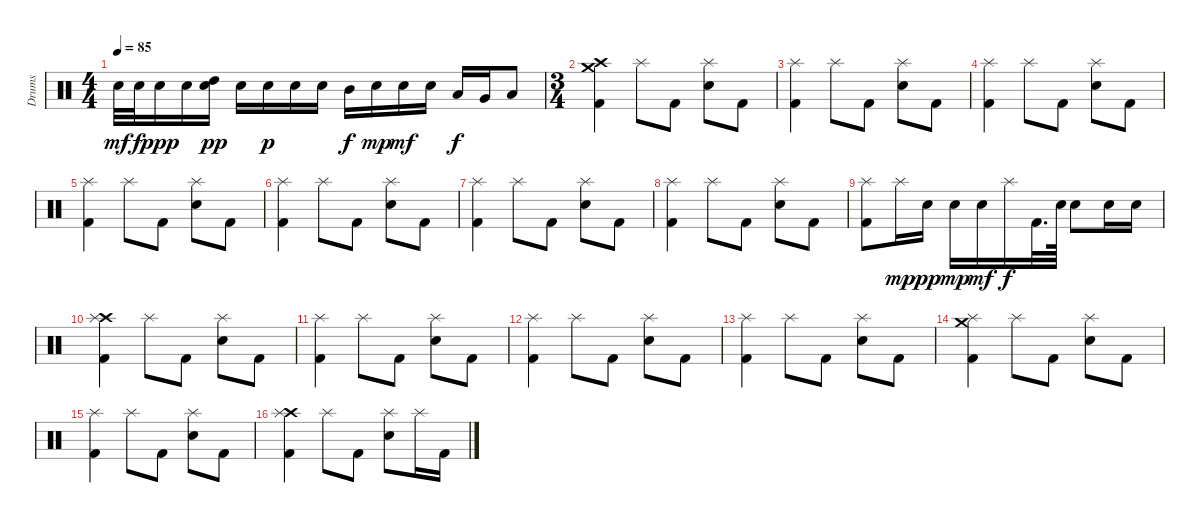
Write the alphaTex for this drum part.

\track ("Drums" "Drums") {instrument percussion}
\staff {score}
\articulation defaults
\ts (4 4)
\tempo 85
\clef neutral
\ks c "Electric Snare (hit)".32{dy mf} "Electric Snare (hit)".32{dy f} "Electric Snare (hit)".16{dy ppp} "Electric Snare (hit)".16
("Electric Snare (hit)" "High Tom (hit)").16{dy pp} "Electric Snare (hit)".16 "Electric Snare (hit)".16{dy p} "Electric Snare (hit)".16 "Electric Snare (hit)".16 "Mid Tom (hit)".16{dy f} "Electric Snare (hit)".16{dy mp} "Electric Snare (hit)".16{dy mf} "Electric Snare (hit)".16 "Low Tom (hit)".16{dy f} "Very Low Tom (hit)".16 "Low Floor Tom (hit)".8 |
\ts (3 4)
("Kick (hit) 2" "Crash high (hit)" "Crash medium (hit)").4 "Splash (hit)".8 "Kick (hit) 2".8 ("Snare (hit) 2" "Splash (hit)").8 "Kick (hit) 2".8 |
("Kick (hit) 2" "Splash (hit)").4 "Splash (hit)".8 "Kick (hit) 2".8 ("Snare (hit) 2" "Splash (hit)").8 "Kick (hit) 2".8 |
("Kick (hit) 2" "Splash (hit)").4 "Splash (hit)".8 "Kick (hit) 2".8 ("Snare (hit) 2" "Splash (hit)").8 "Kick (hit) 2".8 |
("Kick (hit) 2" "Splash (hit)").4 "Splash (hit)".8 "Kick (hit) 2".8 ("Snare (hit) 2" "Splash (hit)").8 "Kick (hit) 2".8 |
("Kick (hit) 2" "Splash (hit)").4 "Splash (hit)".8 "Kick (hit) 2".8 ("Snare (hit) 2" "Splash (hit)").8 "Kick (hit) 2".8 |
("Kick (hit) 2" "Splash (hit)").4 "Splash (hit)".8 "Kick (hit) 2".8 ("Snare (hit) 2" "Splash (hit)").8 "Kick (hit) 2".8 |
("Kick (hit) 2" "Splash (hit)").4 "Splash (hit)".8 "Kick (hit) 2".8 ("Snare (hit) 2" "Splash (hit)").8 "Kick (hit) 2".8 |
("Kick (hit) 2" "Splash (hit)").8 "Splash (hit)".16{dy mp} "Snare (hit) 2".16{dy pp} "Snare (hit) 2".16{dy mp} "Snare (hit) 2".16{dy mf} "Splash (hit)".16{dy f} "Kick (hit) 2".32{d} "Snare (hit) 2".64 "Snare (hit) 2".8 "Snare (hit) 2".16 "Snare (hit) 2".16 |
("Kick (hit) 2" "Crash high (hit)" "Splash (hit)").4 "Splash (hit)".8 "Kick (hit) 2".8 ("Snare (hit) 2" "Splash (hit)").8 "Kick (hit) 2".8 |
("Kick (hit) 2" "Splash (hit)").4 "Splash (hit)".8 "Kick (hit) 2".8 ("Snare (hit) 2" "Splash (hit)").8 "Kick (hit) 2".8 |
("Kick (hit) 2" "Splash (hit)").4 "Splash (hit)".8 "Kick (hit) 2".8 ("Snare (hit) 2" "Splash (hit)").8 "Kick (hit) 2".8 |
("Kick (hit) 2" "Splash (hit)").4 "Splash (hit)".8 "Kick (hit) 2".8 ("Snare (hit) 2" "Splash (hit)").8 "Kick (hit) 2".8 |
("Kick (hit) 2" "Splash (hit)" "Crash medium (hit)").4 "Splash (hit)".8 "Kick (hit) 2".8 ("Snare (hit) 2" "Splash (hit)").8 "Kick (hit) 2".8 |
("Kick (hit) 2" "Splash (hit)").4 "Splash (hit)".8 "Kick (hit) 2".8 ("Snare (hit) 2" "Splash (hit)").8 "Kick (hit) 2".8 |
("Kick (hit) 2" "Crash high (hit)" "Splash (hit)").4 "Splash (hit)".8 "Kick (hit) 2".8 ("Snare (hit) 2" "Splash (hit)").8 "Splash (hit)".16 "Kick (hit) 2".16
